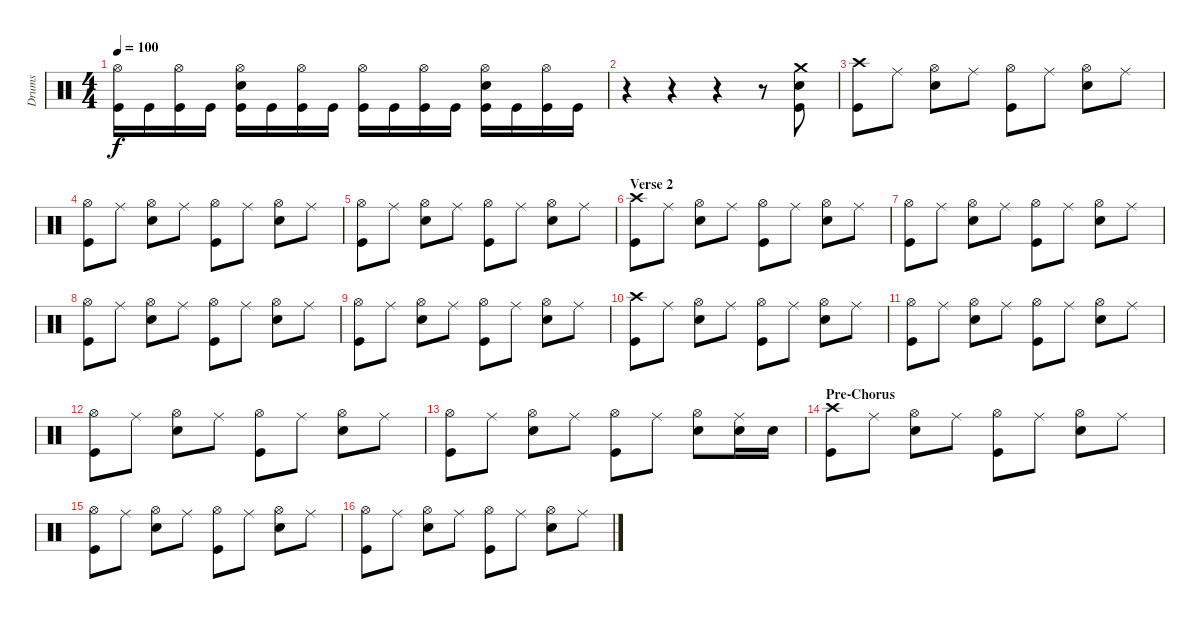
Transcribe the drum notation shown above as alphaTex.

\track ("Drums" "Drums") {instrument percussion}
\staff {score}
\articulation defaults
\ts (4 4)
\tempo 100
\clef neutral
\ks c
("Hi-Hat (open)" "Kick (hit)").16{dy f} "Kick (hit)".16 ("Hi-Hat (open)" "Kick (hit)").16 "Kick (hit)".16 ("Hi-Hat (open)" "Electric Snare (hit)" "Kick (hit)").16 "Kick (hit)".16 ("Hi-Hat (open)" "Kick (hit)").16 "Kick (hit)".16 ("Hi-Hat (open)" "Kick (hit)").16 "Kick (hit)".16 ("Hi-Hat (open)" "Kick (hit)").16 "Kick (hit)".16 ("Hi-Hat (open)" "Electric Snare (hit)" "Kick (hit)").16 "Kick (hit)".16 ("Hi-Hat (open)" "Kick (hit)").16 "Kick (hit)".16 |
r.4 r.4 r.4 r.8 ("Crash medium (hit)" "Electric Snare (hit)" "Kick (hit)").8 |
("Crash high (hit)" "Kick (hit)").8 "Ride (middle)".8 ("Hi-Hat (open)" "Electric Snare (hit)").8 "Ride (middle)".8 ("Hi-Hat (open)" "Kick (hit)").8 "Ride (middle)".8 ("Hi-Hat (open)" "Electric Snare (hit)").8 "Ride (middle)".8 |
("Hi-Hat (open)" "Kick (hit)").8 "Ride (middle)".8 ("Hi-Hat (open)" "Electric Snare (hit)").8 "Ride (middle)".8 ("Hi-Hat (open)" "Kick (hit)").8 "Ride (middle)".8 ("Hi-Hat (open)" "Electric Snare (hit)").8 "Ride (middle)".8 |
("Hi-Hat (open)" "Kick (hit)").8 "Ride (middle)".8 ("Hi-Hat (open)" "Electric Snare (hit)").8 "Ride (middle)".8 ("Hi-Hat (open)" "Kick (hit)").8 "Ride (middle)".8 ("Hi-Hat (open)" "Electric Snare (hit)").8 "Ride (middle)".8 |
\section ("" "Verse 2")
("Crash high (hit)" "Kick (hit)").8 "Ride (middle)".8 ("Hi-Hat (open)" "Electric Snare (hit)").8 "Ride (middle)".8 ("Hi-Hat (open)" "Kick (hit)").8 "Ride (middle)".8 ("Hi-Hat (open)" "Electric Snare (hit)").8 "Ride (middle)".8 |
("Hi-Hat (open)" "Kick (hit)").8 "Ride (middle)".8 ("Hi-Hat (open)" "Electric Snare (hit)").8 "Ride (middle)".8 ("Hi-Hat (open)" "Kick (hit)").8 "Ride (middle)".8 ("Hi-Hat (open)" "Electric Snare (hit)").8 "Ride (middle)".8 |
("Hi-Hat (open)" "Kick (hit)").8 "Ride (middle)".8 ("Hi-Hat (open)" "Electric Snare (hit)").8 "Ride (middle)".8 ("Hi-Hat (open)" "Kick (hit)").8 "Ride (middle)".8 ("Hi-Hat (open)" "Electric Snare (hit)").8 "Ride (middle)".8 |
("Hi-Hat (open)" "Kick (hit)").8 "Ride (middle)".8 ("Hi-Hat (open)" "Electric Snare (hit)").8 "Ride (middle)".8 ("Hi-Hat (open)" "Kick (hit)").8 "Ride (middle)".8 ("Hi-Hat (open)" "Electric Snare (hit)").8 "Ride (middle)".8 |
("Crash high (hit)" "Kick (hit)").8 "Ride (middle)".8 ("Hi-Hat (open)" "Electric Snare (hit)").8 "Ride (middle)".8 ("Hi-Hat (open)" "Kick (hit)").8 "Ride (middle)".8 ("Hi-Hat (open)" "Electric Snare (hit)").8 "Ride (middle)".8 |
("Hi-Hat (open)" "Kick (hit)").8 "Ride (middle)".8 ("Hi-Hat (open)" "Electric Snare (hit)").8 "Ride (middle)".8 ("Hi-Hat (open)" "Kick (hit)").8 "Ride (middle)".8 ("Hi-Hat (open)" "Electric Snare (hit)").8 "Ride (middle)".8 |
("Hi-Hat (open)" "Kick (hit)").8 "Ride (middle)".8 ("Hi-Hat (open)" "Electric Snare (hit)").8 "Ride (middle)".8 ("Hi-Hat (open)" "Kick (hit)").8 "Ride (middle)".8 ("Hi-Hat (open)" "Electric Snare (hit)").8 "Ride (middle)".8 |
("Hi-Hat (open)" "Kick (hit)").8 "Ride (middle)".8 ("Hi-Hat (open)" "Electric Snare (hit)").8 "Ride (middle)".8 ("Hi-Hat (open)" "Kick (hit)").8 "Ride (middle)".8 ("Hi-Hat (open)" "Electric Snare (hit)").8 ("Ride (middle)" "Electric Snare (hit)").16 "Electric Snare (hit)".16 |
\section ("" "Pre-Chorus")
("Crash high (hit)" "Kick (hit)").8 "Ride (middle)".8 ("Hi-Hat (open)" "Electric Snare (hit)").8 "Ride (middle)".8 ("Hi-Hat (open)" "Kick (hit)").8 "Ride (middle)".8 ("Hi-Hat (open)" "Electric Snare (hit)").8 "Ride (middle)".8 |
("Hi-Hat (open)" "Kick (hit)").8 "Ride (middle)".8 ("Hi-Hat (open)" "Electric Snare (hit)").8 "Ride (middle)".8 ("Hi-Hat (open)" "Kick (hit)").8 "Ride (middle)".8 ("Hi-Hat (open)" "Electric Snare (hit)").8 "Ride (middle)".8 |
("Hi-Hat (open)" "Kick (hit)").8 "Ride (middle)".8 ("Hi-Hat (open)" "Electric Snare (hit)").8 "Ride (middle)".8 ("Hi-Hat (open)" "Kick (hit)").8 "Ride (middle)".8 ("Hi-Hat (open)" "Electric Snare (hit)").8 "Ride (middle)".8
